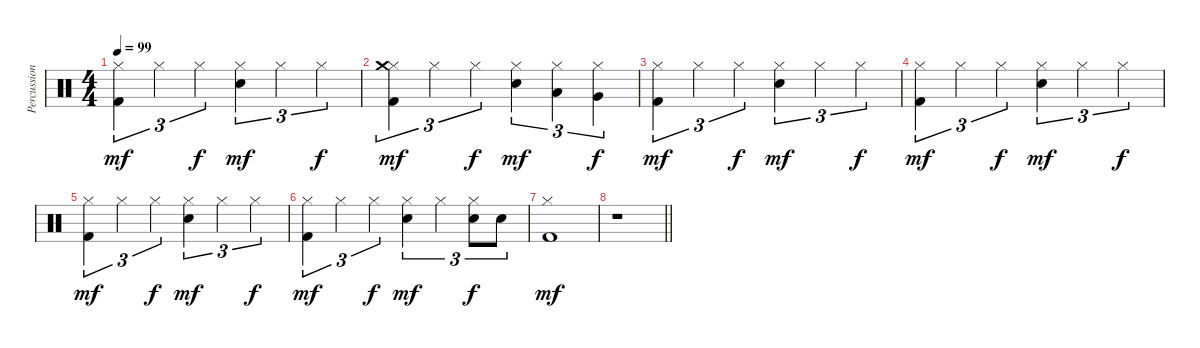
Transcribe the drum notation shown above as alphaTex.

\track ("Percussion" "Percussion") {instrument percussion}
\staff {score}
\articulation defaults
\ts (4 4)
\tempo 99
\clef neutral
\ks c
("Hi-Hat (closed)" "Kick (hit) 2").4{tu (3 2) dy mf} "Hi-Hat (closed)".4{tu (3 2)} "Hi-Hat (closed)".4{tu (3 2) dy f} ("Hi-Hat (closed)" "Electric Snare (hit)").4{tu (3 2) dy mf} "Hi-Hat (closed)".4{tu (3 2)} "Hi-Hat (closed)".4{tu (3 2) dy f} |
("Hi-Hat (closed)" "Crash medium (hit)" "Kick (hit) 2").4{tu (3 2) dy mf} "Hi-Hat (closed)".4{tu (3 2)} "Hi-Hat (closed)".4{tu (3 2) dy f} ("Hi-Hat (closed)" "Electric Snare (hit)").4{tu (3 2) dy mf} ("Hi-Hat (closed)" "Low Tom (hit)").4{tu (3 2)} ("Hi-Hat (closed)" "Very Low Tom (hit)").4{tu (3 2) dy f} |
("Hi-Hat (closed)" "Kick (hit) 2").4{tu (3 2) dy mf} "Hi-Hat (closed)".4{tu (3 2)} "Hi-Hat (closed)".4{tu (3 2) dy f} ("Hi-Hat (closed)" "Electric Snare (hit)").4{tu (3 2) dy mf} "Hi-Hat (closed)".4{tu (3 2)} "Hi-Hat (closed)".4{tu (3 2) dy f} |
("Hi-Hat (closed)" "Kick (hit) 2").4{tu (3 2) dy mf} "Hi-Hat (closed)".4{tu (3 2)} "Hi-Hat (closed)".4{tu (3 2) dy f} ("Hi-Hat (closed)" "Electric Snare (hit)").4{tu (3 2) dy mf} "Hi-Hat (closed)".4{tu (3 2)} "Hi-Hat (closed)".4{tu (3 2) dy f} |
("Hi-Hat (closed)" "Kick (hit) 2").4{tu (3 2) dy mf} "Hi-Hat (closed)".4{tu (3 2)} "Hi-Hat (closed)".4{tu (3 2) dy f} ("Hi-Hat (closed)" "Electric Snare (hit)").4{tu (3 2) dy mf} "Hi-Hat (closed)".4{tu (3 2)} "Hi-Hat (closed)".4{tu (3 2) dy f} |
("Hi-Hat (closed)" "Kick (hit) 2").4{tu (3 2) dy mf} "Hi-Hat (closed)".4{tu (3 2)} "Hi-Hat (closed)".4{tu (3 2) dy f} ("Hi-Hat (closed)" "Electric Snare (hit)").4{tu (3 2) dy mf} "Hi-Hat (closed)".4{tu (3 2)} ("Hi-Hat (closed)" "Electric Snare (hit)").8{tu (3 2) dy f} "Electric Snare (hit)".8{tu (3 2)} |
("Hi-Hat (closed)" "Kick (hit) 2").1{dy mf} |
\barLineRight lightlight
r.1
